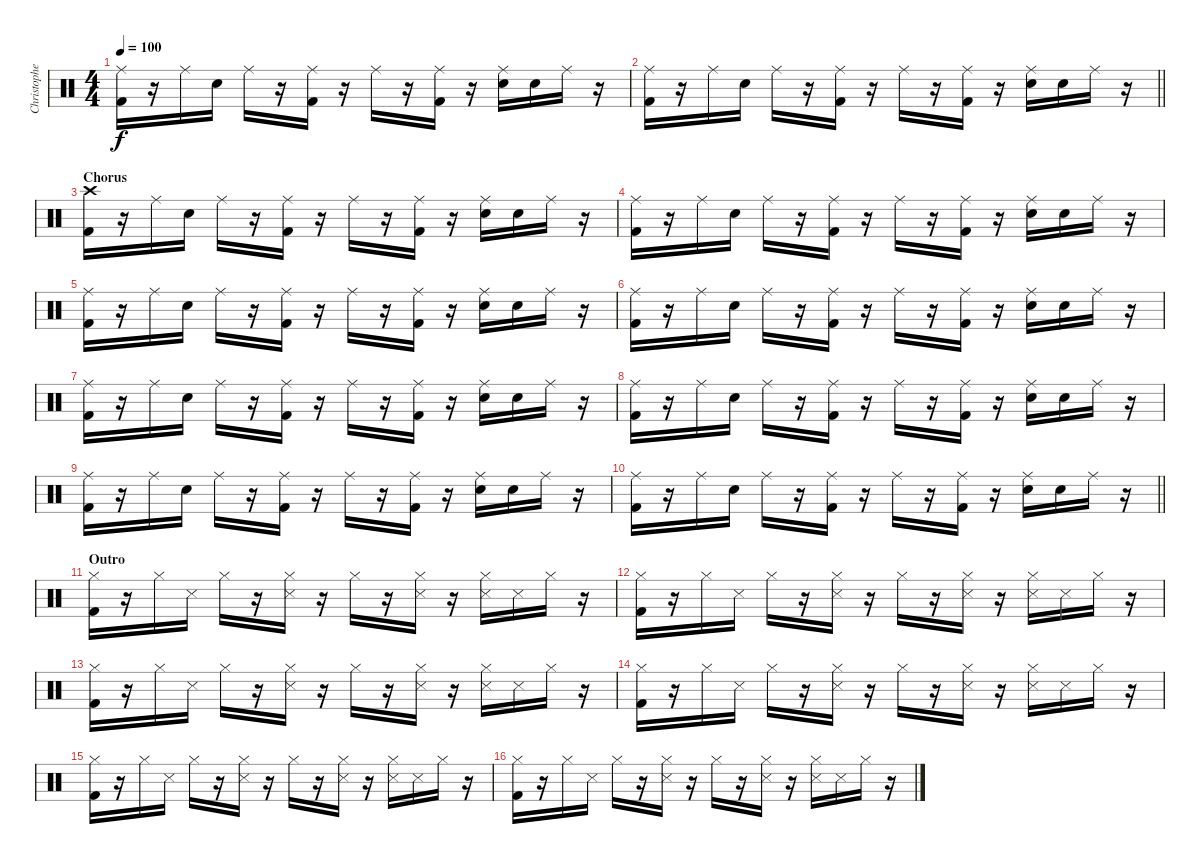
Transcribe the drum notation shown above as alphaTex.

\track ("Christopher - Drums" "Christophe") {instrument percussion}
\staff {score}
\articulation defaults
\ts (4 4)
\tempo 100
\clef neutral
\ks c
("Ride (middle)" "Kick (hit) 2").16{dy f} r.16 "Ride (middle)".16 "Electric Snare (hit)".16 "Ride (middle)".16 r.16 ("Ride (middle)" "Kick (hit) 2").16 r.16 "Ride (middle)".16 r.16 ("Ride (middle)" "Kick (hit) 2").16 r.16 ("Ride (middle)" "Electric Snare (hit)").16 "Electric Snare (hit)".16 "Ride (middle)".16 r.16 |
\barLineRight lightlight
("Ride (middle)" "Kick (hit) 2").16 r.16 "Ride (middle)".16 "Electric Snare (hit)".16 "Ride (middle)".16 r.16 ("Ride (middle)" "Kick (hit) 2").16 r.16 "Ride (middle)".16 r.16 ("Ride (middle)" "Kick (hit) 2").16 r.16 ("Ride (middle)" "Electric Snare (hit)").16 "Electric Snare (hit)".16 "Ride (middle)".16 r.16 |
\section ("" "Chorus")
("Crash high (hit)" "Kick (hit) 2").16 r.16 "Ride (middle)".16 "Electric Snare (hit)".16 "Ride (middle)".16 r.16 ("Ride (middle)" "Kick (hit) 2").16 r.16 "Ride (middle)".16 r.16 ("Ride (middle)" "Kick (hit) 2").16 r.16 ("Ride (middle)" "Electric Snare (hit)").16 "Electric Snare (hit)".16 "Ride (middle)".16 r.16 |
("Ride (middle)" "Kick (hit) 2").16 r.16 "Ride (middle)".16 "Electric Snare (hit)".16 "Ride (middle)".16 r.16 ("Ride (middle)" "Kick (hit) 2").16 r.16 "Ride (middle)".16 r.16 ("Ride (middle)" "Kick (hit) 2").16 r.16 ("Ride (middle)" "Electric Snare (hit)").16 "Electric Snare (hit)".16 "Ride (middle)".16 r.16 |
("Ride (middle)" "Kick (hit) 2").16 r.16 "Ride (middle)".16 "Electric Snare (hit)".16 "Ride (middle)".16 r.16 ("Ride (middle)" "Kick (hit) 2").16 r.16 "Ride (middle)".16 r.16 ("Ride (middle)" "Kick (hit) 2").16 r.16 ("Ride (middle)" "Electric Snare (hit)").16 "Electric Snare (hit)".16 "Ride (middle)".16 r.16 |
("Ride (middle)" "Kick (hit) 2").16 r.16 "Ride (middle)".16 "Electric Snare (hit)".16 "Ride (middle)".16 r.16 ("Ride (middle)" "Kick (hit) 2").16 r.16 "Ride (middle)".16 r.16 ("Ride (middle)" "Kick (hit) 2").16 r.16 ("Ride (middle)" "Electric Snare (hit)").16 "Electric Snare (hit)".16 "Ride (middle)".16 r.16 |
("Ride (middle)" "Kick (hit) 2").16 r.16 "Ride (middle)".16 "Electric Snare (hit)".16 "Ride (middle)".16 r.16 ("Ride (middle)" "Kick (hit) 2").16 r.16 "Ride (middle)".16 r.16 ("Ride (middle)" "Kick (hit) 2").16 r.16 ("Ride (middle)" "Electric Snare (hit)").16 "Electric Snare (hit)".16 "Ride (middle)".16 r.16 |
("Ride (middle)" "Kick (hit) 2").16 r.16 "Ride (middle)".16 "Electric Snare (hit)".16 "Ride (middle)".16 r.16 ("Ride (middle)" "Kick (hit) 2").16 r.16 "Ride (middle)".16 r.16 ("Ride (middle)" "Kick (hit) 2").16 r.16 ("Ride (middle)" "Electric Snare (hit)").16 "Electric Snare (hit)".16 "Ride (middle)".16 r.16 |
("Ride (middle)" "Kick (hit) 2").16 r.16 "Ride (middle)".16 "Electric Snare (hit)".16 "Ride (middle)".16 r.16 ("Ride (middle)" "Kick (hit) 2").16 r.16 "Ride (middle)".16 r.16 ("Ride (middle)" "Kick (hit) 2").16 r.16 ("Ride (middle)" "Electric Snare (hit)").16 "Electric Snare (hit)".16 "Ride (middle)".16 r.16 |
\barLineRight lightlight
("Ride (middle)" "Kick (hit) 2").16 r.16 "Ride (middle)".16 "Electric Snare (hit)".16 "Ride (middle)".16 r.16 ("Ride (middle)" "Kick (hit) 2").16 r.16 "Ride (middle)".16 r.16 ("Ride (middle)" "Kick (hit) 2").16 r.16 ("Ride (middle)" "Electric Snare (hit)").16 "Electric Snare (hit)".16 "Ride (middle)".16 r.16 |
\section ("" "Outro")
("Hi-Hat (closed)" "Kick (hit) 2").16 r.16 "Hi-Hat (closed)".16 "Snare (side stick) 3".16 "Hi-Hat (closed)".16 r.16 ("Hi-Hat (closed)" "Snare (side stick) 3").16 r.16 "Hi-Hat (closed)".16 r.16 ("Hi-Hat (closed)" "Snare (side stick) 3").16 r.16 ("Hi-Hat (closed)" "Snare (side stick) 3").16 "Snare (side stick) 3".16 "Hi-Hat (closed)".16 r.16 |
("Hi-Hat (closed)" "Kick (hit) 2").16 r.16 "Hi-Hat (closed)".16 "Snare (side stick) 3".16 "Hi-Hat (closed)".16 r.16 ("Hi-Hat (closed)" "Snare (side stick) 3").16 r.16 "Hi-Hat (closed)".16 r.16 ("Hi-Hat (closed)" "Snare (side stick) 3").16 r.16 ("Hi-Hat (closed)" "Snare (side stick) 3").16 "Snare (side stick) 3".16 "Hi-Hat (closed)".16 r.16 |
("Hi-Hat (closed)" "Kick (hit) 2").16 r.16 "Hi-Hat (closed)".16 "Snare (side stick) 3".16 "Hi-Hat (closed)".16 r.16 ("Hi-Hat (closed)" "Snare (side stick) 3").16 r.16 "Hi-Hat (closed)".16 r.16 ("Hi-Hat (closed)" "Snare (side stick) 3").16 r.16 ("Hi-Hat (closed)" "Snare (side stick) 3").16 "Snare (side stick) 3".16 "Hi-Hat (closed)".16 r.16 |
("Hi-Hat (closed)" "Kick (hit) 2").16 r.16 "Hi-Hat (closed)".16 "Snare (side stick) 3".16 "Hi-Hat (closed)".16 r.16 ("Hi-Hat (closed)" "Snare (side stick) 3").16 r.16 "Hi-Hat (closed)".16 r.16 ("Hi-Hat (closed)" "Snare (side stick) 3").16 r.16 ("Hi-Hat (closed)" "Snare (side stick) 3").16 "Snare (side stick) 3".16 "Hi-Hat (closed)".16 r.16 |
("Hi-Hat (closed)" "Kick (hit) 2").16 r.16 "Hi-Hat (closed)".16 "Snare (side stick) 3".16 "Hi-Hat (closed)".16 r.16 ("Hi-Hat (closed)" "Snare (side stick) 3").16 r.16 "Hi-Hat (closed)".16 r.16 ("Hi-Hat (closed)" "Snare (side stick) 3").16 r.16 ("Hi-Hat (closed)" "Snare (side stick) 3").16 "Snare (side stick) 3".16 "Hi-Hat (closed)".16 r.16 |
("Hi-Hat (closed)" "Kick (hit) 2").16 r.16 "Hi-Hat (closed)".16 "Snare (side stick) 3".16 "Hi-Hat (closed)".16 r.16 ("Hi-Hat (closed)" "Snare (side stick) 3").16 r.16 "Hi-Hat (closed)".16 r.16 ("Hi-Hat (closed)" "Snare (side stick) 3").16 r.16 ("Hi-Hat (closed)" "Snare (side stick) 3").16 "Snare (side stick) 3".16 "Hi-Hat (closed)".16 r.16
